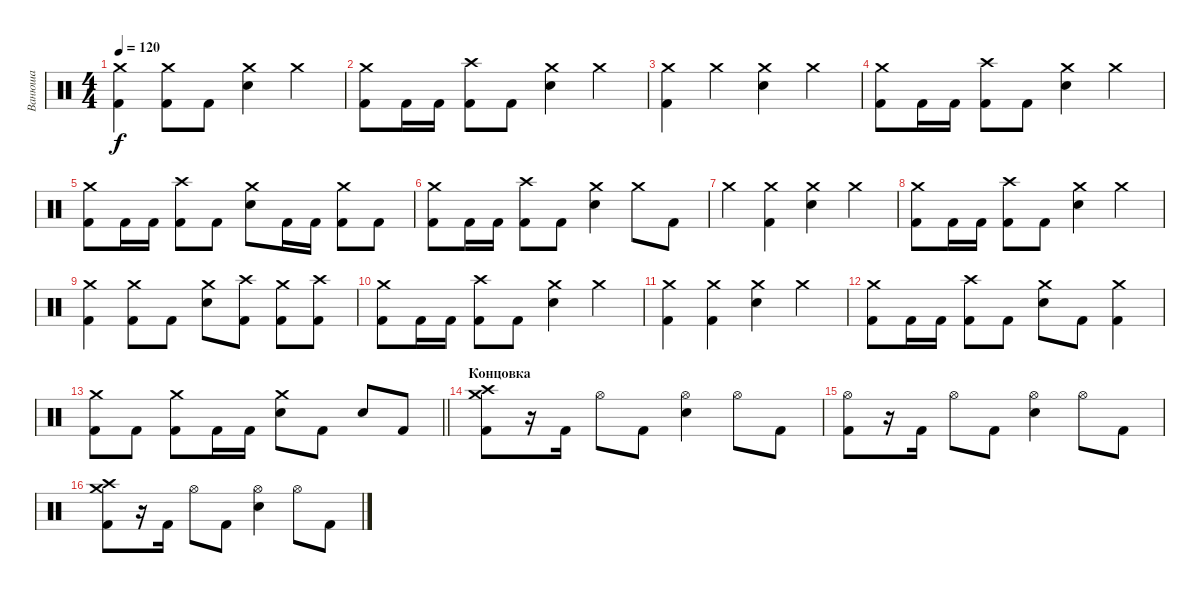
\track ("Ванюша" "Ванюша") {instrument percussion}
\staff {score}
\articulation defaults
\ts (4 4)
\tempo 120
\clef neutral
\ks c
("Crash medium (hit)" "Kick (hit) 2").4{dy f} ("Crash medium (hit)" "Kick (hit) 2").8 "Kick (hit) 2".8 ("Crash medium (hit)" "Snare (hit) 2").4 "Crash medium (hit)".4 |
("Crash medium (hit)" "Kick (hit) 2").8 "Kick (hit) 2".16 "Kick (hit) 2".16 ("Crash high (hit)" "Kick (hit) 2").8 "Kick (hit) 2".8 ("Crash medium (hit)" "Snare (hit) 2").4 "Crash medium (hit)".4 |
("Crash medium (hit)" "Kick (hit) 2").4 "Crash medium (hit)".4 ("Crash medium (hit)" "Snare (hit) 2").4 "Crash medium (hit)".4 |
("Crash medium (hit)" "Kick (hit) 2").8 "Kick (hit) 2".16 "Kick (hit) 2".16 ("Crash high (hit)" "Kick (hit) 2").8 "Kick (hit) 2".8 ("Crash medium (hit)" "Snare (hit) 2").4 "Crash medium (hit)".4 |
("Crash medium (hit)" "Kick (hit) 2").8 "Kick (hit) 2".16 "Kick (hit) 2".16 ("Crash high (hit)" "Kick (hit) 2").8 "Kick (hit) 2".8 ("Crash medium (hit)" "Snare (hit) 2").8 "Kick (hit) 2".16 "Kick (hit) 2".16 ("Crash medium (hit)" "Kick (hit) 2").8 "Kick (hit) 2".8 |
("Crash medium (hit)" "Kick (hit) 2").8 "Kick (hit) 2".16 "Kick (hit) 2".16 ("Crash high (hit)" "Kick (hit) 2").8 "Kick (hit) 2".8 ("Crash medium (hit)" "Snare (hit) 2").4 "Crash medium (hit)".8 "Kick (hit) 2".8 |
"Crash medium (hit)".4 ("Crash medium (hit)" "Kick (hit) 2").4 ("Crash medium (hit)" "Snare (hit) 2").4 "Crash medium (hit)".4 |
("Crash medium (hit)" "Kick (hit) 2").8 "Kick (hit) 2".16 "Kick (hit) 2".16 ("Crash high (hit)" "Kick (hit) 2").8 "Kick (hit) 2".8 ("Crash medium (hit)" "Snare (hit) 2").4 "Crash medium (hit)".4 |
("Crash medium (hit)" "Kick (hit) 2").4 ("Crash medium (hit)" "Kick (hit) 2").8 "Kick (hit) 2".8 ("Crash medium (hit)" "Snare (hit) 2").8 ("Crash high (hit)" "Kick (hit) 2").8 ("Crash medium (hit)" "Kick (hit) 2").8 ("Crash high (hit)" "Kick (hit) 2").8 |
("Crash medium (hit)" "Kick (hit) 2").8 "Kick (hit) 2".16 "Kick (hit) 2".16 ("Crash high (hit)" "Kick (hit) 2").8 "Kick (hit) 2".8 ("Crash medium (hit)" "Snare (hit) 2").4 "Crash medium (hit)".4 |
("Crash medium (hit)" "Kick (hit) 2").4 ("Crash medium (hit)" "Kick (hit) 2").4 ("Crash medium (hit)" "Snare (hit) 2").4 "Crash medium (hit)".4 |
("Crash medium (hit)" "Kick (hit) 2").8 "Kick (hit) 2".16 "Kick (hit) 2".16 ("Crash high (hit)" "Kick (hit) 2").8 "Kick (hit) 2".8 ("Crash medium (hit)" "Snare (hit) 2").8 "Kick (hit) 2".8 ("Crash medium (hit)" "Kick (hit) 2").4 |
\barLineRight lightlight
("Crash medium (hit)" "Kick (hit) 2").8 "Kick (hit) 2".8 ("Crash medium (hit)" "Kick (hit) 2").8 "Kick (hit) 2".16 "Kick (hit) 2".16 ("Crash medium (hit)" "Snare (hit) 2").8 "Kick (hit) 2".8 "Snare (hit) 2".8 "Kick (hit) 2".8 |
\section ("" "Концовка")
("Crash medium (hit)" "Crash high (hit)" "Kick (hit) 2").8 r.16 "Kick (hit) 2".16 "Hi-Hat (open)".8 "Kick (hit) 2".8 ("Hi-Hat (open)" "Snare (hit) 2").4 "Hi-Hat (open)".8 "Kick (hit) 2".8 |
("Hi-Hat (open)" "Kick (hit) 2").8 r.16 "Kick (hit) 2".16 "Hi-Hat (open)".8 "Kick (hit) 2".8 ("Hi-Hat (open)" "Snare (hit) 2").4 "Hi-Hat (open)".8 "Kick (hit) 2".8 |
("Crash medium (hit)" "Crash high (hit)" "Kick (hit) 2").8 r.16 "Kick (hit) 2".16 "Hi-Hat (open)".8 "Kick (hit) 2".8 ("Hi-Hat (open)" "Snare (hit) 2").4 "Hi-Hat (open)".8 "Kick (hit) 2".8
